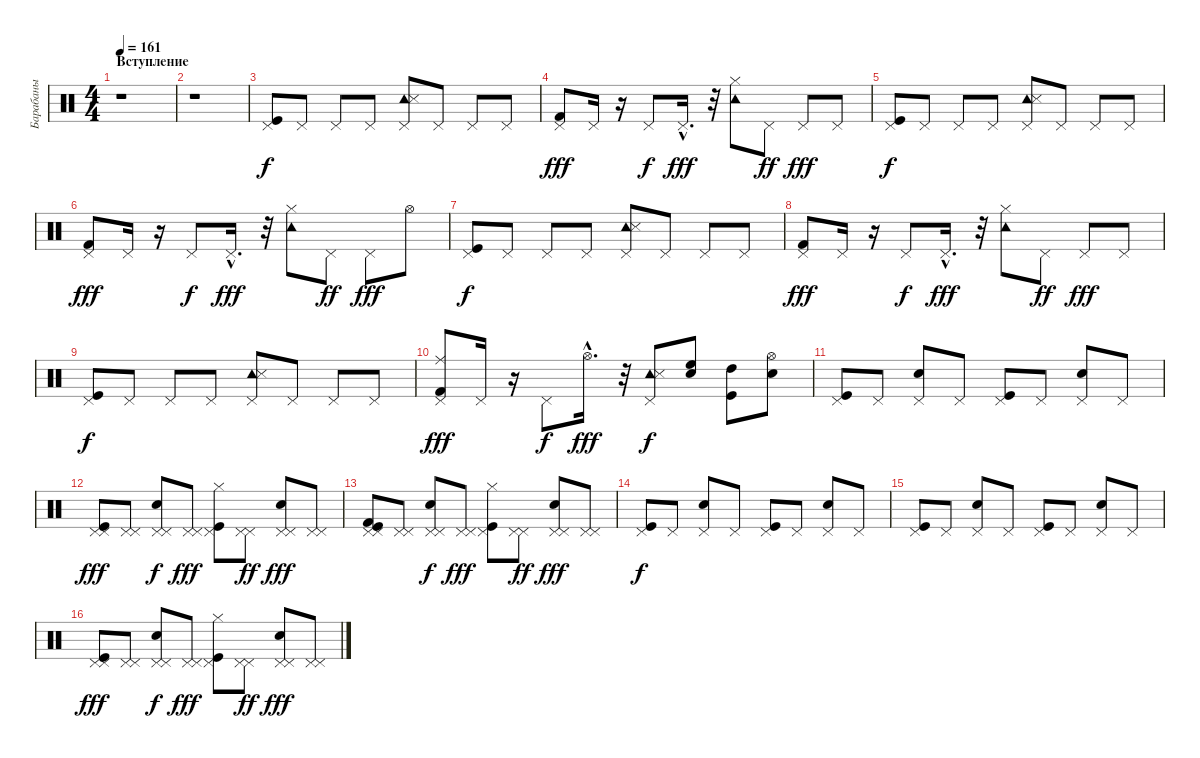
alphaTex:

\track ("Барабаны" "Барабаны") {instrument percussion}
\staff {score}
\articulation defaults
\ts (4 4)
\section ("" "Вступление")
\tempo 161
\clef neutral
\ks c
r.1{dy f} |
r.1 |
("Kick (hit)" "Pedal Hi-Hat (hit)").8 "Pedal Hi-Hat (hit)".8 "Pedal Hi-Hat (hit)".8 "Pedal Hi-Hat (hit)".8 ("Tambourine (hit)" "Snare (side stick) 3" "Pedal Hi-Hat (hit)").8 "Pedal Hi-Hat (hit)".8 "Pedal Hi-Hat (hit)".8 "Pedal Hi-Hat (hit)".8 |
("Kick (hit) 2" "Pedal Hi-Hat (hit)").8{dy fff} "Pedal Hi-Hat (hit)".16 r.16 "Pedal Hi-Hat (hit)".8{dy f} "Pedal Hi-Hat (hit)"{hac}.16{d dy fff} r.32 ("Tambourine (hit)" "Hi-Hat (closed)").8 "Pedal Hi-Hat (hit)".8{dy ff} "Pedal Hi-Hat (hit)".8{dy fff} "Pedal Hi-Hat (hit)".8 |
("Kick (hit)" "Pedal Hi-Hat (hit)").8{dy f} "Pedal Hi-Hat (hit)".8 "Pedal Hi-Hat (hit)".8 "Pedal Hi-Hat (hit)".8 ("Tambourine (hit)" "Snare (side stick) 3" "Pedal Hi-Hat (hit)").8 "Pedal Hi-Hat (hit)".8 "Pedal Hi-Hat (hit)".8 "Pedal Hi-Hat (hit)".8 |
("Kick (hit) 2" "Pedal Hi-Hat (hit)").8{dy fff} "Pedal Hi-Hat (hit)".16 r.16 "Pedal Hi-Hat (hit)".8{dy f} "Pedal Hi-Hat (hit)"{hac}.16{d dy fff} r.32 ("Tambourine (hit)" "Hi-Hat (closed)").8 "Pedal Hi-Hat (hit)".8{dy ff} "Pedal Hi-Hat (hit)".8{dy fff} "Hi-Hat (open)".8 |
("Kick (hit)" "Pedal Hi-Hat (hit)").8{dy f} "Pedal Hi-Hat (hit)".8 "Pedal Hi-Hat (hit)".8 "Pedal Hi-Hat (hit)".8 ("Tambourine (hit)" "Snare (side stick) 3" "Pedal Hi-Hat (hit)").8 "Pedal Hi-Hat (hit)".8 "Pedal Hi-Hat (hit)".8 "Pedal Hi-Hat (hit)".8 |
("Kick (hit) 2" "Pedal Hi-Hat (hit)").8{dy fff} "Pedal Hi-Hat (hit)".16 r.16 "Pedal Hi-Hat (hit)".8{dy f} "Pedal Hi-Hat (hit)"{hac}.16{d dy fff} r.32 ("Tambourine (hit)" "Hi-Hat (closed)").8 "Pedal Hi-Hat (hit)".8{dy ff} "Pedal Hi-Hat (hit)".8{dy fff} "Pedal Hi-Hat (hit)".8 |
("Pedal Hi-Hat (hit)" "Kick (hit)").8{dy f} "Pedal Hi-Hat (hit)".8 "Pedal Hi-Hat (hit)".8 "Pedal Hi-Hat (hit)".8 ("Tambourine (hit)" "Snare (side stick) 3" "Pedal Hi-Hat (hit)").8 "Pedal Hi-Hat (hit)".8 "Pedal Hi-Hat (hit)".8 "Pedal Hi-Hat (hit)".8 |
("Ride (middle)" "Kick (hit) 2" "Pedal Hi-Hat (hit)").8{dy fff} "Pedal Hi-Hat (hit)".16 r.16 "Pedal Hi-Hat (hit)".8{dy f} "Hi-Hat (open)"{hac}.16{d dy fff} r.32 ("Tambourine (hit)" "Snare (side stick) 3" "Pedal Hi-Hat (hit)").8{dy f} ("Snare (hit) 2" "High Floor Tom (hit)").8 ("Kick (hit)" "High Tom (hit)").8 ("Snare (hit) 2" "Hi-Hat (open)").8 |
("Kick (hit)" "Pedal Hi-Hat (hit)").8 "Pedal Hi-Hat (hit)".8 ("Snare (hit) 2" "Pedal Hi-Hat (hit)").8 "Pedal Hi-Hat (hit)".8 ("Kick (hit)" "Pedal Hi-Hat (hit)").8 "Pedal Hi-Hat (hit)".8 ("Snare (hit) 2" "Pedal Hi-Hat (hit)").8 "Pedal Hi-Hat (hit)".8 |
("Pedal Hi-Hat (hit)" "Kick (hit)" "Pedal Hi-Hat (hit)").8{dy fff} ("Pedal Hi-Hat (hit)" "Pedal Hi-Hat (hit)").8 ("Snare (hit) 2" "Pedal Hi-Hat (hit)" "Pedal Hi-Hat (hit)").8{dy f} ("Pedal Hi-Hat (hit)" "Pedal Hi-Hat (hit)").8{dy fff} ("Kick (hit)" "Hi-Hat (closed)" "Pedal Hi-Hat (hit)").8 ("Pedal Hi-Hat (hit)" "Pedal Hi-Hat (hit)").8{dy ff} ("Snare (hit) 2" "Pedal Hi-Hat (hit)" "Pedal Hi-Hat (hit)").8{dy fff} ("Pedal Hi-Hat (hit)" "Pedal Hi-Hat (hit)").8 |
("Pedal Hi-Hat (hit)" "Kick (hit)" "Kick (hit) 2" "Pedal Hi-Hat (hit)").8 ("Pedal Hi-Hat (hit)" "Pedal Hi-Hat (hit)").8 ("Snare (hit) 2" "Pedal Hi-Hat (hit)" "Pedal Hi-Hat (hit)").8{dy f} ("Pedal Hi-Hat (hit)" "Pedal Hi-Hat (hit)").8{dy fff} ("Kick (hit)" "Pedal Hi-Hat (hit)" "Hi-Hat (closed)").8 ("Pedal Hi-Hat (hit)" "Pedal Hi-Hat (hit)").8{dy ff} ("Snare (hit) 2" "Pedal Hi-Hat (hit)" "Pedal Hi-Hat (hit)").8{dy fff} ("Pedal Hi-Hat (hit)" "Pedal Hi-Hat (hit)").8 |
("Pedal Hi-Hat (hit)" "Kick (hit)").8{dy f} "Pedal Hi-Hat (hit)".8 ("Snare (hit) 2" "Pedal Hi-Hat (hit)").8 "Pedal Hi-Hat (hit)".8 ("Kick (hit)" "Pedal Hi-Hat (hit)").8 "Pedal Hi-Hat (hit)".8 ("Snare (hit) 2" "Pedal Hi-Hat (hit)").8 "Pedal Hi-Hat (hit)".8 |
("Kick (hit)" "Pedal Hi-Hat (hit)").8 "Pedal Hi-Hat (hit)".8 ("Snare (hit) 2" "Pedal Hi-Hat (hit)").8 "Pedal Hi-Hat (hit)".8 ("Kick (hit)" "Pedal Hi-Hat (hit)").8 "Pedal Hi-Hat (hit)".8 ("Snare (hit) 2" "Pedal Hi-Hat (hit)").8 "Pedal Hi-Hat (hit)".8 |
("Pedal Hi-Hat (hit)" "Kick (hit)" "Pedal Hi-Hat (hit)").8{dy fff} ("Pedal Hi-Hat (hit)" "Pedal Hi-Hat (hit)").8 ("Snare (hit) 2" "Pedal Hi-Hat (hit)" "Pedal Hi-Hat (hit)").8{dy f} ("Pedal Hi-Hat (hit)" "Pedal Hi-Hat (hit)").8{dy fff} ("Kick (hit)" "Hi-Hat (closed)" "Pedal Hi-Hat (hit)").8 ("Pedal Hi-Hat (hit)" "Pedal Hi-Hat (hit)").8{dy ff} ("Snare (hit) 2" "Pedal Hi-Hat (hit)" "Pedal Hi-Hat (hit)").8{dy fff} ("Pedal Hi-Hat (hit)" "Pedal Hi-Hat (hit)").8
